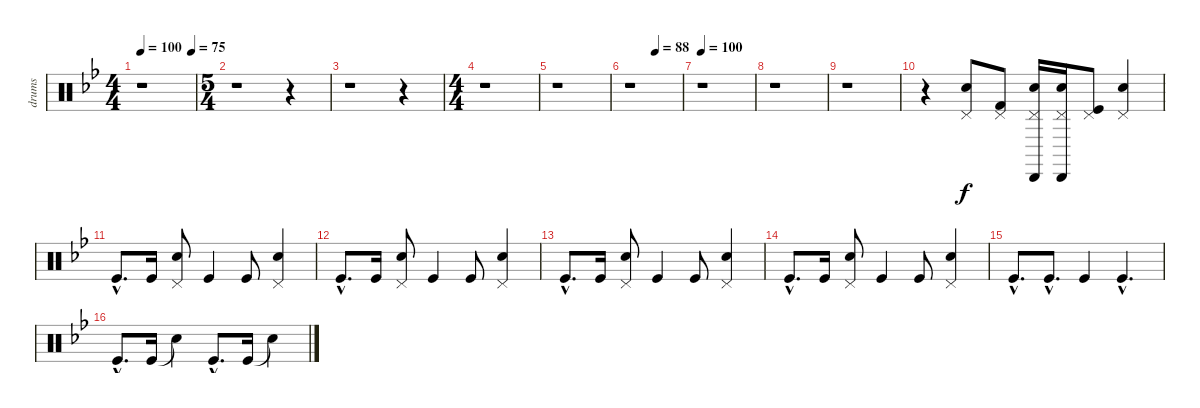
\track ("drums" "drums") {instrument percussion}
\staff {score}
\articulation defaults
\ts (4 4)
\tempo 100
\tempo (75 0.9375)
\tempo 100
\clef neutral
\ks gminor
r.1{dy f} |
\ts (5 4)
r.1 r.4 |
r.1 r.4 |
\ts (4 4)
r.1 |
r.1 |
\tempo (88 0.5)
r.1 |
\tempo 100
r.1 |
r.1 |
r.1 |
r.4 ("Pedal Hi-Hat (hit)" "Electric Snare (hit)").8 ("Pedal Hi-Hat (hit)" "Kick (hit) 2").8 ("Pedal Hi-Hat (hit)" "Snare (hit) 2" "Cabasa (hit)").16 ("Pedal Hi-Hat (hit)" "Snare (hit) 2" "Cabasa (hit)").16 ("Pedal Hi-Hat (hit)" "Kick (hit)").8 ("Pedal Hi-Hat (hit)" "Electric Snare (hit)").4 |
"Kick (hit)"{hac}.8{d} "Kick (hit)".16 ("Pedal Hi-Hat (hit)" "Electric Snare (hit)").8 "Kick (hit)".4 "Kick (hit)".8 ("Pedal Hi-Hat (hit)" "Electric Snare (hit)").4 |
"Kick (hit)"{hac}.8{d} "Kick (hit)".16 ("Pedal Hi-Hat (hit)" "Electric Snare (hit)").8 "Kick (hit)".4 "Kick (hit)".8 ("Pedal Hi-Hat (hit)" "Electric Snare (hit)").4 |
"Kick (hit)"{hac}.8{d} "Kick (hit)".16 ("Pedal Hi-Hat (hit)" "Electric Snare (hit)").8 "Kick (hit)".4 "Kick (hit)".8 ("Pedal Hi-Hat (hit)" "Electric Snare (hit)").4 |
"Kick (hit)"{hac}.8{d} "Kick (hit)".16 ("Pedal Hi-Hat (hit)" "Electric Snare (hit)").8 "Kick (hit)".4 "Kick (hit)".8 ("Pedal Hi-Hat (hit)" "Electric Snare (hit)").4 |
"Kick (hit)"{hac}.8{d} "Kick (hit)"{hac}.8{d} "Kick (hit)".4 "Kick (hit)"{hac}.4{d} |
"Kick (hit)"{hac}.8{d} "Kick (hit)".16 "Snare (hit)"{t}.4 "Kick (hit)"{hac}.8{d} "Kick (hit)".16 "Snare (hit)"{t}.4
